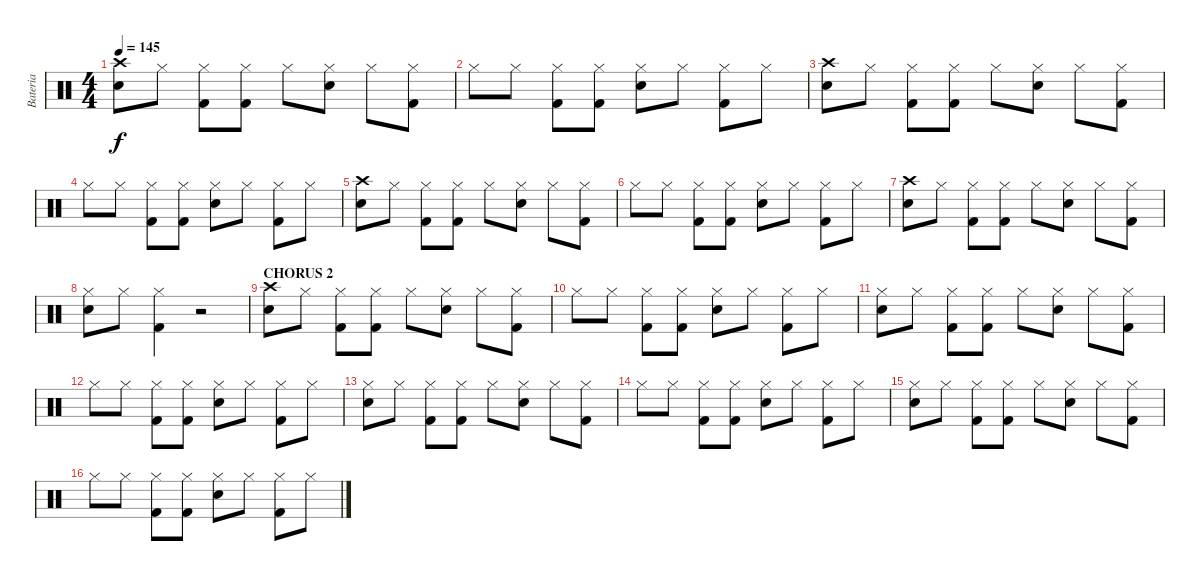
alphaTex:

\track ("Bateria" "Bateria") {instrument percussion}
\staff {score}
\articulation defaults
\ts (4 4)
\tempo 145
\clef neutral
\ks c
("Crash high (hit)" "Snare (hit) 2").8{dy f} "Hi-Hat (closed)".8 ("Hi-Hat (closed)" "Kick (hit) 2").8 ("Hi-Hat (closed)" "Kick (hit) 2").8 "Hi-Hat (closed)".8 ("Hi-Hat (closed)" "Snare (hit) 2").8 "Hi-Hat (closed)".8 ("Hi-Hat (closed)" "Kick (hit) 2").8 |
"Hi-Hat (closed)".8 "Hi-Hat (closed)".8 ("Hi-Hat (closed)" "Kick (hit) 2").8 ("Hi-Hat (closed)" "Kick (hit) 2").8 ("Hi-Hat (closed)" "Snare (hit) 2").8 "Hi-Hat (closed)".8 ("Hi-Hat (closed)" "Kick (hit) 2").8 "Hi-Hat (closed)".8 |
("Crash high (hit)" "Snare (hit) 2").8 "Hi-Hat (closed)".8 ("Hi-Hat (closed)" "Kick (hit) 2").8 ("Hi-Hat (closed)" "Kick (hit) 2").8 "Hi-Hat (closed)".8 ("Hi-Hat (closed)" "Snare (hit) 2").8 "Hi-Hat (closed)".8 ("Hi-Hat (closed)" "Kick (hit) 2").8 |
"Hi-Hat (closed)".8 "Hi-Hat (closed)".8 ("Hi-Hat (closed)" "Kick (hit) 2").8 ("Hi-Hat (closed)" "Kick (hit) 2").8 ("Hi-Hat (closed)" "Snare (hit) 2").8 "Hi-Hat (closed)".8 ("Hi-Hat (closed)" "Kick (hit) 2").8 "Hi-Hat (closed)".8 |
("Crash high (hit)" "Snare (hit) 2").8 "Hi-Hat (closed)".8 ("Hi-Hat (closed)" "Kick (hit) 2").8 ("Hi-Hat (closed)" "Kick (hit) 2").8 "Hi-Hat (closed)".8 ("Hi-Hat (closed)" "Snare (hit) 2").8 "Hi-Hat (closed)".8 ("Hi-Hat (closed)" "Kick (hit) 2").8 |
"Hi-Hat (closed)".8 "Hi-Hat (closed)".8 ("Hi-Hat (closed)" "Kick (hit) 2").8 ("Hi-Hat (closed)" "Kick (hit) 2").8 ("Hi-Hat (closed)" "Snare (hit) 2").8 "Hi-Hat (closed)".8 ("Hi-Hat (closed)" "Kick (hit) 2").8 "Hi-Hat (closed)".8 |
("Crash high (hit)" "Snare (hit) 2").8 "Hi-Hat (closed)".8 ("Hi-Hat (closed)" "Kick (hit) 2").8 ("Hi-Hat (closed)" "Kick (hit) 2").8 "Hi-Hat (closed)".8 ("Hi-Hat (closed)" "Snare (hit) 2").8 "Hi-Hat (closed)".8 ("Hi-Hat (closed)" "Kick (hit) 2").8 |
("Hi-Hat (closed)" "Snare (hit) 2").8 "Hi-Hat (closed)".8 ("Hi-Hat (closed)" "Kick (hit) 2").4 r.2 |
\section ("" "CHORUS 2")
("Crash high (hit)" "Snare (hit) 2").8 "Hi-Hat (closed)".8 ("Hi-Hat (closed)" "Kick (hit) 2").8 ("Hi-Hat (closed)" "Kick (hit) 2").8 "Hi-Hat (closed)".8 ("Hi-Hat (closed)" "Snare (hit) 2").8 "Hi-Hat (closed)".8 ("Hi-Hat (closed)" "Kick (hit) 2").8 |
"Hi-Hat (closed)".8 "Hi-Hat (closed)".8 ("Hi-Hat (closed)" "Kick (hit) 2").8 ("Hi-Hat (closed)" "Kick (hit) 2").8 ("Hi-Hat (closed)" "Snare (hit) 2").8 "Hi-Hat (closed)".8 ("Hi-Hat (closed)" "Kick (hit) 2").8 "Hi-Hat (closed)".8 |
("Hi-Hat (closed)" "Snare (hit) 2").8 "Hi-Hat (closed)".8 ("Hi-Hat (closed)" "Kick (hit) 2").8 ("Hi-Hat (closed)" "Kick (hit) 2").8 "Hi-Hat (closed)".8 ("Hi-Hat (closed)" "Snare (hit) 2").8 "Hi-Hat (closed)".8 ("Hi-Hat (closed)" "Kick (hit) 2").8 |
"Hi-Hat (closed)".8 "Hi-Hat (closed)".8 ("Hi-Hat (closed)" "Kick (hit) 2").8 ("Hi-Hat (closed)" "Kick (hit) 2").8 ("Hi-Hat (closed)" "Snare (hit) 2").8 "Hi-Hat (closed)".8 ("Hi-Hat (closed)" "Kick (hit) 2").8 "Hi-Hat (closed)".8 |
("Hi-Hat (closed)" "Snare (hit) 2").8 "Hi-Hat (closed)".8 ("Hi-Hat (closed)" "Kick (hit) 2").8 ("Hi-Hat (closed)" "Kick (hit) 2").8 "Hi-Hat (closed)".8 ("Hi-Hat (closed)" "Snare (hit) 2").8 "Hi-Hat (closed)".8 ("Hi-Hat (closed)" "Kick (hit) 2").8 |
"Hi-Hat (closed)".8 "Hi-Hat (closed)".8 ("Hi-Hat (closed)" "Kick (hit) 2").8 ("Hi-Hat (closed)" "Kick (hit) 2").8 ("Hi-Hat (closed)" "Snare (hit) 2").8 "Hi-Hat (closed)".8 ("Hi-Hat (closed)" "Kick (hit) 2").8 "Hi-Hat (closed)".8 |
("Hi-Hat (closed)" "Snare (hit) 2").8 "Hi-Hat (closed)".8 ("Hi-Hat (closed)" "Kick (hit) 2").8 ("Hi-Hat (closed)" "Kick (hit) 2").8 "Hi-Hat (closed)".8 ("Hi-Hat (closed)" "Snare (hit) 2").8 "Hi-Hat (closed)".8 ("Hi-Hat (closed)" "Kick (hit) 2").8 |
"Hi-Hat (closed)".8 "Hi-Hat (closed)".8 ("Hi-Hat (closed)" "Kick (hit) 2").8 ("Hi-Hat (closed)" "Kick (hit) 2").8 ("Hi-Hat (closed)" "Snare (hit) 2").8 "Hi-Hat (closed)".8 ("Hi-Hat (closed)" "Kick (hit) 2").8 "Hi-Hat (closed)".8
